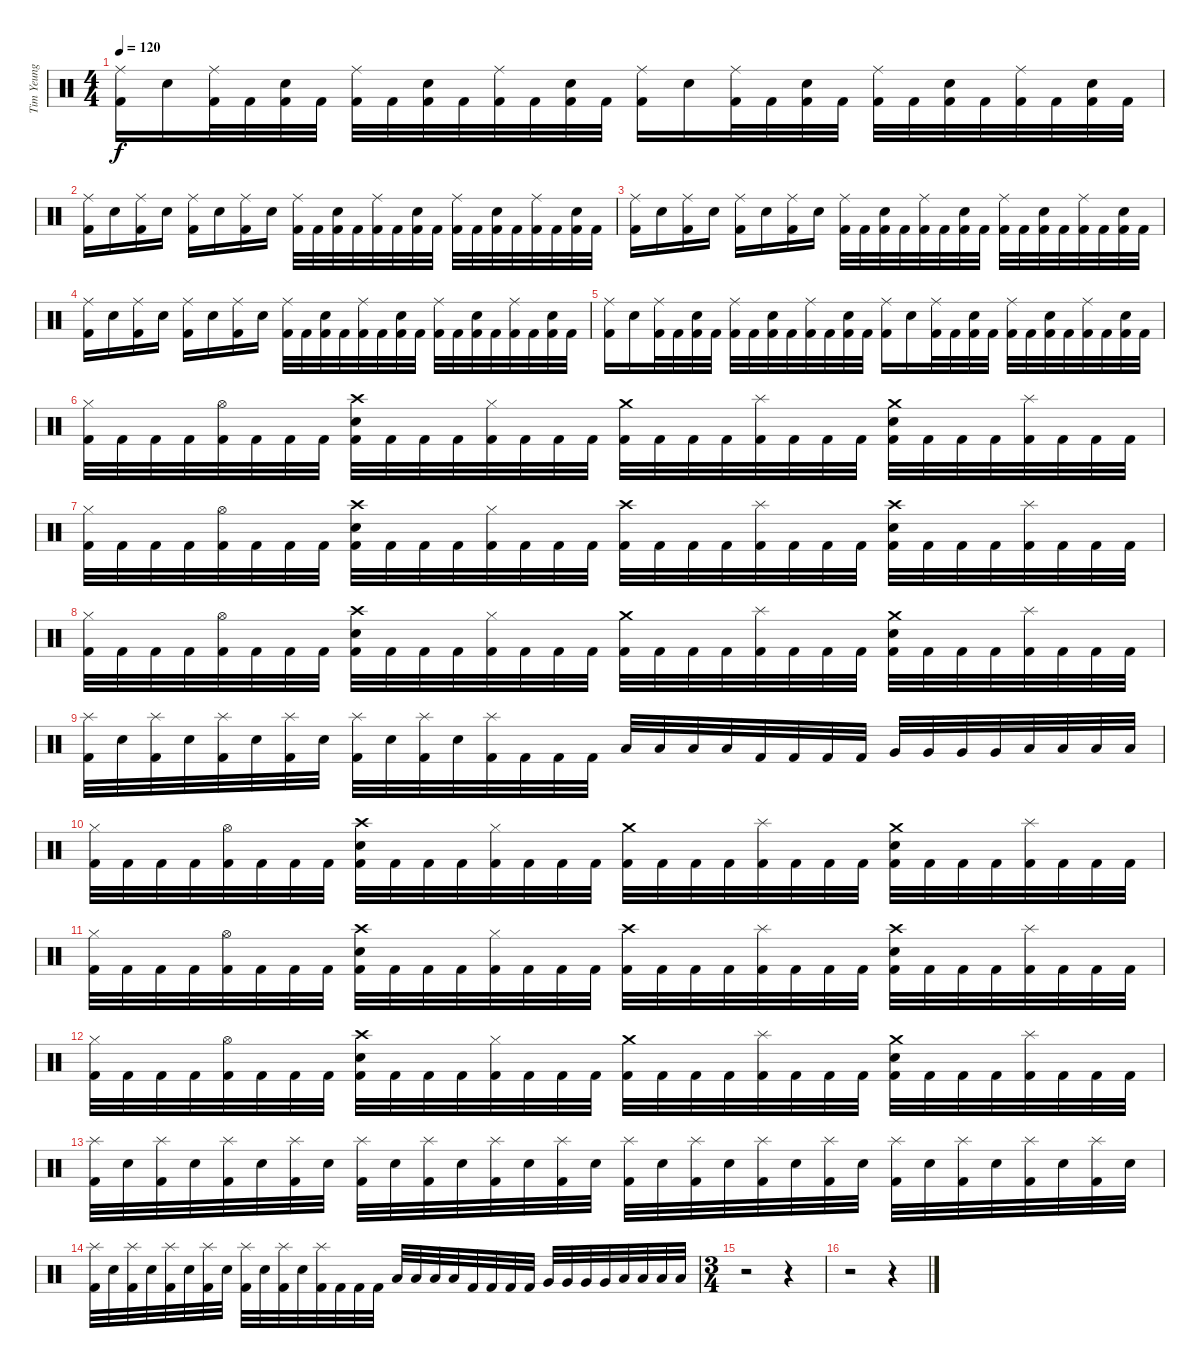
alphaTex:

\track ("Tim Yeung" "Tim Yeung") {instrument percussion}
\staff {score}
\articulation defaults
\ts (4 4)
\tempo 120
\clef neutral
\ks c
("Ride (middle)" "Kick (hit) 2").16{dy f} "Electric Snare (hit)".16 ("Ride (middle)" "Kick (hit) 2").32 "Kick (hit) 2".32 ("Electric Snare (hit)" "Kick (hit) 2").32 "Kick (hit) 2".32 ("Ride (middle)" "Kick (hit) 2").32 "Kick (hit) 2".32 ("Electric Snare (hit)" "Kick (hit) 2").32 "Kick (hit) 2".32 ("Ride (middle)" "Kick (hit) 2").32 "Kick (hit) 2".32 ("Electric Snare (hit)" "Kick (hit) 2").32 "Kick (hit) 2".32 ("Ride (middle)" "Kick (hit) 2").16 "Electric Snare (hit)".16 ("Ride (middle)" "Kick (hit) 2").32 "Kick (hit) 2".32 ("Electric Snare (hit)" "Kick (hit) 2").32 "Kick (hit) 2".32 ("Ride (middle)" "Kick (hit) 2").32 "Kick (hit) 2".32 ("Electric Snare (hit)" "Kick (hit) 2").32 "Kick (hit) 2".32 ("Ride (middle)" "Kick (hit) 2").32 "Kick (hit) 2".32 ("Electric Snare (hit)" "Kick (hit) 2").32 "Kick (hit) 2".32 |
("Ride (middle)" "Kick (hit) 2").16 "Electric Snare (hit)".16 ("Ride (middle)" "Kick (hit) 2").16 "Electric Snare (hit)".16 ("Ride (middle)" "Kick (hit) 2").16 "Electric Snare (hit)".16 ("Ride (middle)" "Kick (hit) 2").16 "Electric Snare (hit)".16 ("Ride (middle)" "Kick (hit) 2").32 "Kick (hit) 2".32 ("Electric Snare (hit)" "Kick (hit) 2").32 "Kick (hit) 2".32 ("Ride (middle)" "Kick (hit) 2").32 "Kick (hit) 2".32 ("Electric Snare (hit)" "Kick (hit) 2").32 "Kick (hit) 2".32 ("Ride (middle)" "Kick (hit) 2").32 "Kick (hit) 2".32 ("Electric Snare (hit)" "Kick (hit) 2").32 "Kick (hit) 2".32 ("Ride (middle)" "Kick (hit) 2").32 "Kick (hit) 2".32 ("Electric Snare (hit)" "Kick (hit) 2").32 "Kick (hit) 2".32 |
("Ride (middle)" "Kick (hit) 2").16 "Electric Snare (hit)".16 ("Ride (middle)" "Kick (hit) 2").16 "Electric Snare (hit)".16 ("Ride (middle)" "Kick (hit) 2").16 "Electric Snare (hit)".16 ("Ride (middle)" "Kick (hit) 2").16 "Electric Snare (hit)".16 ("Ride (middle)" "Kick (hit) 2").32 "Kick (hit) 2".32 ("Electric Snare (hit)" "Kick (hit) 2").32 "Kick (hit) 2".32 ("Ride (middle)" "Kick (hit) 2").32 "Kick (hit) 2".32 ("Electric Snare (hit)" "Kick (hit) 2").32 "Kick (hit) 2".32 ("Ride (middle)" "Kick (hit) 2").32 "Kick (hit) 2".32 ("Electric Snare (hit)" "Kick (hit) 2").32 "Kick (hit) 2".32 ("Ride (middle)" "Kick (hit) 2").32 "Kick (hit) 2".32 ("Electric Snare (hit)" "Kick (hit) 2").32 "Kick (hit) 2".32 |
("Ride (middle)" "Kick (hit) 2").16 "Electric Snare (hit)".16 ("Ride (middle)" "Kick (hit) 2").16 "Electric Snare (hit)".16 ("Ride (middle)" "Kick (hit) 2").16 "Electric Snare (hit)".16 ("Ride (middle)" "Kick (hit) 2").16 "Electric Snare (hit)".16 ("Ride (middle)" "Kick (hit) 2").32 "Kick (hit) 2".32 ("Electric Snare (hit)" "Kick (hit) 2").32 "Kick (hit) 2".32 ("Ride (middle)" "Kick (hit) 2").32 "Kick (hit) 2".32 ("Electric Snare (hit)" "Kick (hit) 2").32 "Kick (hit) 2".32 ("Ride (middle)" "Kick (hit) 2").32 "Kick (hit) 2".32 ("Electric Snare (hit)" "Kick (hit) 2").32 "Kick (hit) 2".32 ("Ride (middle)" "Kick (hit) 2").32 "Kick (hit) 2".32 ("Electric Snare (hit)" "Kick (hit) 2").32 "Kick (hit) 2".32 |
("Ride (middle)" "Kick (hit) 2").16 "Electric Snare (hit)".16 ("Ride (middle)" "Kick (hit) 2").32 "Kick (hit) 2".32 ("Electric Snare (hit)" "Kick (hit) 2").32 "Kick (hit) 2".32 ("Ride (middle)" "Kick (hit) 2").32 "Kick (hit) 2".32 ("Electric Snare (hit)" "Kick (hit) 2").32 "Kick (hit) 2".32 ("Ride (middle)" "Kick (hit) 2").32 "Kick (hit) 2".32 ("Electric Snare (hit)" "Kick (hit) 2").32 "Kick (hit) 2".32 ("Ride (middle)" "Kick (hit) 2").16 "Electric Snare (hit)".16 ("Ride (middle)" "Kick (hit) 2").32 "Kick (hit) 2".32 ("Electric Snare (hit)" "Kick (hit) 2").32 "Kick (hit) 2".32 ("Ride (middle)" "Kick (hit) 2").32 "Kick (hit) 2".32 ("Electric Snare (hit)" "Kick (hit) 2").32 "Kick (hit) 2".32 ("Ride (middle)" "Kick (hit) 2").32 "Kick (hit) 2".32 ("Electric Snare (hit)" "Kick (hit) 2").32 "Kick (hit) 2".32 |
("Hi-Hat (closed)" "Kick (hit) 2").32 "Kick (hit) 2".32 "Kick (hit) 2".32 "Kick (hit) 2".32 ("Hi-Hat (open)" "Kick (hit) 2").32 "Kick (hit) 2".32 "Kick (hit) 2".32 "Kick (hit) 2".32 ("Crash high (hit)" "Electric Snare (hit)" "Kick (hit) 2").32 "Kick (hit) 2".32 "Kick (hit) 2".32 "Kick (hit) 2".32 ("Hi-Hat (closed)" "Kick (hit) 2").32 "Kick (hit) 2".32 "Kick (hit) 2".32 "Kick (hit) 2".32 ("Crash medium (hit)" "Kick (hit) 2").32 "Kick (hit) 2".32 "Kick (hit) 2".32 "Kick (hit) 2".32 ("Splash (hit)" "Kick (hit) 2").32 "Kick (hit) 2".32 "Kick (hit) 2".32 "Kick (hit) 2".32 ("Crash medium (hit)" "Electric Snare (hit)" "Kick (hit) 2").32 "Kick (hit) 2".32 "Kick (hit) 2".32 "Kick (hit) 2".32 ("Splash (hit)" "Kick (hit) 2").32 "Kick (hit) 2".32 "Kick (hit) 2".32 "Kick (hit) 2".32 |
("Hi-Hat (closed)" "Kick (hit) 2").32 "Kick (hit) 2".32 "Kick (hit) 2".32 "Kick (hit) 2".32 ("Hi-Hat (open)" "Kick (hit) 2").32 "Kick (hit) 2".32 "Kick (hit) 2".32 "Kick (hit) 2".32 ("Crash high (hit)" "Electric Snare (hit)" "Kick (hit) 2").32 "Kick (hit) 2".32 "Kick (hit) 2".32 "Kick (hit) 2".32 ("Hi-Hat (closed)" "Kick (hit) 2").32 "Kick (hit) 2".32 "Kick (hit) 2".32 "Kick (hit) 2".32 ("Crash high (hit)" "Kick (hit) 2").32 "Kick (hit) 2".32 "Kick (hit) 2".32 "Kick (hit) 2".32 ("Splash (hit)" "Kick (hit) 2").32 "Kick (hit) 2".32 "Kick (hit) 2".32 "Kick (hit) 2".32 ("Crash high (hit)" "Electric Snare (hit)" "Kick (hit) 2").32 "Kick (hit) 2".32 "Kick (hit) 2".32 "Kick (hit) 2".32 ("Splash (hit)" "Kick (hit) 2").32 "Kick (hit) 2".32 "Kick (hit) 2".32 "Kick (hit) 2".32 |
("Hi-Hat (closed)" "Kick (hit) 2").32 "Kick (hit) 2".32 "Kick (hit) 2".32 "Kick (hit) 2".32 ("Hi-Hat (open)" "Kick (hit) 2").32 "Kick (hit) 2".32 "Kick (hit) 2".32 "Kick (hit) 2".32 ("Crash high (hit)" "Electric Snare (hit)" "Kick (hit) 2").32 "Kick (hit) 2".32 "Kick (hit) 2".32 "Kick (hit) 2".32 ("Hi-Hat (closed)" "Kick (hit) 2").32 "Kick (hit) 2".32 "Kick (hit) 2".32 "Kick (hit) 2".32 ("Crash medium (hit)" "Kick (hit) 2").32 "Kick (hit) 2".32 "Kick (hit) 2".32 "Kick (hit) 2".32 ("Splash (hit)" "Kick (hit) 2").32 "Kick (hit) 2".32 "Kick (hit) 2".32 "Kick (hit) 2".32 ("Crash medium (hit)" "Electric Snare (hit)" "Kick (hit) 2").32 "Kick (hit) 2".32 "Kick (hit) 2".32 "Kick (hit) 2".32 ("Splash (hit)" "Kick (hit) 2").32 "Kick (hit) 2".32 "Kick (hit) 2".32 "Kick (hit) 2".32 |
("Splash (hit)" "Kick (hit) 2").32 "Electric Snare (hit)".32 ("Splash (hit)" "Kick (hit) 2").32 "Electric Snare (hit)".32 ("Splash (hit)" "Kick (hit) 2").32 "Electric Snare (hit)".32 ("Splash (hit)" "Kick (hit) 2").32 "Electric Snare (hit)".32 ("Splash (hit)" "Kick (hit) 2").32 "Electric Snare (hit)".32 ("Splash (hit)" "Kick (hit) 2").32 "Electric Snare (hit)".32 ("Splash (hit)" "Kick (hit) 2").32 "Kick (hit) 2".32 "Kick (hit) 2".32 "Kick (hit) 2".32 "Low Tom (hit)".32 "Low Tom (hit)".32 "Low Tom (hit)".32 "Low Tom (hit)".32 "Kick (hit) 2".32 "Kick (hit) 2".32 "Kick (hit) 2".32 "Kick (hit) 2".32 "Very Low Tom (hit)".32 "Very Low Tom (hit)".32 "Very Low Tom (hit)".32 "Very Low Tom (hit)".32 "Low Floor Tom (hit)".32 "Low Floor Tom (hit)".32 "Low Floor Tom (hit)".32 "Low Floor Tom (hit)".32 |
("Hi-Hat (closed)" "Kick (hit) 2").32 "Kick (hit) 2".32 "Kick (hit) 2".32 "Kick (hit) 2".32 ("Hi-Hat (open)" "Kick (hit) 2").32 "Kick (hit) 2".32 "Kick (hit) 2".32 "Kick (hit) 2".32 ("Crash high (hit)" "Electric Snare (hit)" "Kick (hit) 2").32 "Kick (hit) 2".32 "Kick (hit) 2".32 "Kick (hit) 2".32 ("Hi-Hat (closed)" "Kick (hit) 2").32 "Kick (hit) 2".32 "Kick (hit) 2".32 "Kick (hit) 2".32 ("Crash medium (hit)" "Kick (hit) 2").32 "Kick (hit) 2".32 "Kick (hit) 2".32 "Kick (hit) 2".32 ("Splash (hit)" "Kick (hit) 2").32 "Kick (hit) 2".32 "Kick (hit) 2".32 "Kick (hit) 2".32 ("Crash medium (hit)" "Electric Snare (hit)" "Kick (hit) 2").32 "Kick (hit) 2".32 "Kick (hit) 2".32 "Kick (hit) 2".32 ("Splash (hit)" "Kick (hit) 2").32 "Kick (hit) 2".32 "Kick (hit) 2".32 "Kick (hit) 2".32 |
("Hi-Hat (closed)" "Kick (hit) 2").32 "Kick (hit) 2".32 "Kick (hit) 2".32 "Kick (hit) 2".32 ("Hi-Hat (open)" "Kick (hit) 2").32 "Kick (hit) 2".32 "Kick (hit) 2".32 "Kick (hit) 2".32 ("Crash high (hit)" "Electric Snare (hit)" "Kick (hit) 2").32 "Kick (hit) 2".32 "Kick (hit) 2".32 "Kick (hit) 2".32 ("Hi-Hat (closed)" "Kick (hit) 2").32 "Kick (hit) 2".32 "Kick (hit) 2".32 "Kick (hit) 2".32 ("Crash high (hit)" "Kick (hit) 2").32 "Kick (hit) 2".32 "Kick (hit) 2".32 "Kick (hit) 2".32 ("Splash (hit)" "Kick (hit) 2").32 "Kick (hit) 2".32 "Kick (hit) 2".32 "Kick (hit) 2".32 ("Crash high (hit)" "Electric Snare (hit)" "Kick (hit) 2").32 "Kick (hit) 2".32 "Kick (hit) 2".32 "Kick (hit) 2".32 ("Splash (hit)" "Kick (hit) 2").32 "Kick (hit) 2".32 "Kick (hit) 2".32 "Kick (hit) 2".32 |
("Hi-Hat (closed)" "Kick (hit) 2").32 "Kick (hit) 2".32 "Kick (hit) 2".32 "Kick (hit) 2".32 ("Hi-Hat (open)" "Kick (hit) 2").32 "Kick (hit) 2".32 "Kick (hit) 2".32 "Kick (hit) 2".32 ("Crash high (hit)" "Electric Snare (hit)" "Kick (hit) 2").32 "Kick (hit) 2".32 "Kick (hit) 2".32 "Kick (hit) 2".32 ("Hi-Hat (closed)" "Kick (hit) 2").32 "Kick (hit) 2".32 "Kick (hit) 2".32 "Kick (hit) 2".32 ("Crash medium (hit)" "Kick (hit) 2").32 "Kick (hit) 2".32 "Kick (hit) 2".32 "Kick (hit) 2".32 ("Splash (hit)" "Kick (hit) 2").32 "Kick (hit) 2".32 "Kick (hit) 2".32 "Kick (hit) 2".32 ("Crash medium (hit)" "Electric Snare (hit)" "Kick (hit) 2").32 "Kick (hit) 2".32 "Kick (hit) 2".32 "Kick (hit) 2".32 ("Splash (hit)" "Kick (hit) 2").32 "Kick (hit) 2".32 "Kick (hit) 2".32 "Kick (hit) 2".32 |
("Splash (hit)" "Kick (hit) 2").32 "Electric Snare (hit)".32 ("Splash (hit)" "Kick (hit) 2").32 "Electric Snare (hit)".32 ("Splash (hit)" "Kick (hit) 2").32 "Electric Snare (hit)".32 ("Splash (hit)" "Kick (hit) 2").32 "Electric Snare (hit)".32 ("Splash (hit)" "Kick (hit) 2").32 "Electric Snare (hit)".32 ("Splash (hit)" "Kick (hit) 2").32 "Electric Snare (hit)".32 ("Splash (hit)" "Kick (hit) 2").32 "Electric Snare (hit)".32 ("Splash (hit)" "Kick (hit) 2").32 "Electric Snare (hit)".32 ("Splash (hit)" "Kick (hit) 2").32 "Electric Snare (hit)".32 ("Splash (hit)" "Kick (hit) 2").32 "Electric Snare (hit)".32 ("Splash (hit)" "Kick (hit) 2").32 "Electric Snare (hit)".32 ("Splash (hit)" "Kick (hit) 2").32 "Electric Snare (hit)".32 ("Splash (hit)" "Kick (hit) 2").32 "Electric Snare (hit)".32 ("Splash (hit)" "Kick (hit) 2").32 "Electric Snare (hit)".32 ("Splash (hit)" "Kick (hit) 2").32 "Electric Snare (hit)".32 ("Splash (hit)" "Kick (hit) 2").32 "Electric Snare (hit)".32 |
("Splash (hit)" "Kick (hit) 2").32 "Electric Snare (hit)".32 ("Splash (hit)" "Kick (hit) 2").32 "Electric Snare (hit)".32 ("Splash (hit)" "Kick (hit) 2").32 "Electric Snare (hit)".32 ("Splash (hit)" "Kick (hit) 2").32 "Electric Snare (hit)".32 ("Splash (hit)" "Kick (hit) 2").32 "Electric Snare (hit)".32 ("Splash (hit)" "Kick (hit) 2").32 "Electric Snare (hit)".32 ("Splash (hit)" "Kick (hit) 2").32 "Kick (hit) 2".32 "Kick (hit) 2".32 "Kick (hit) 2".32 "Low Tom (hit)".32 "Low Tom (hit)".32 "Low Tom (hit)".32 "Low Tom (hit)".32 "Kick (hit) 2".32 "Kick (hit) 2".32 "Kick (hit) 2".32 "Kick (hit) 2".32 "Very Low Tom (hit)".32 "Very Low Tom (hit)".32 "Very Low Tom (hit)".32 "Very Low Tom (hit)".32 "Low Floor Tom (hit)".32 "Low Floor Tom (hit)".32 "Low Floor Tom (hit)".32 "Low Floor Tom (hit)".32 |
\ts (3 4)
r.2 r.4 |
r.2 r.4
